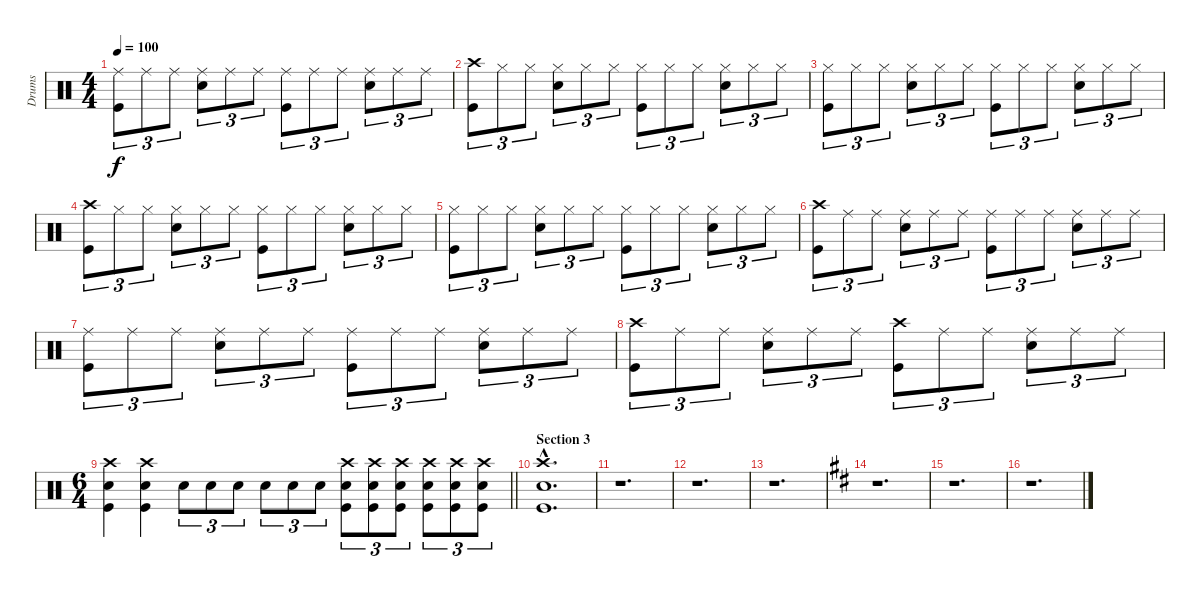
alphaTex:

\track ("Drums" "Drums") {instrument percussion}
\staff {score}
\articulation defaults
\ts (4 4)
\tempo 100
\clef neutral
\ks c
("Ride (middle)" "Kick (hit)").8{tu (3 2) dy f} "Ride (middle)".8{tu (3 2)} "Ride (middle)".8{tu (3 2)} ("Ride (middle)" "Snare (hit) 2").8{tu (3 2)} "Ride (middle)".8{tu (3 2)} "Ride (middle)".8{tu (3 2)} ("Ride (middle)" "Kick (hit)").8{tu (3 2)} "Ride (middle)".8{tu (3 2)} "Ride (middle)".8{tu (3 2)} ("Ride (middle)" "Snare (hit) 2").8{tu (3 2)} "Ride (middle)".8{tu (3 2)} "Ride (middle)".8{tu (3 2)} |
("Crash high (hit)" "Kick (hit)").8{tu (3 2)} "Hi-Hat (closed)".8{tu (3 2)} "Hi-Hat (closed)".8{tu (3 2)} ("Hi-Hat (closed)" "Snare (hit) 2").8{tu (3 2)} "Hi-Hat (closed)".8{tu (3 2)} "Hi-Hat (closed)".8{tu (3 2)} ("Hi-Hat (closed)" "Kick (hit)").8{tu (3 2)} "Hi-Hat (closed)".8{tu (3 2)} "Hi-Hat (closed)".8{tu (3 2)} ("Hi-Hat (closed)" "Snare (hit) 2").8{tu (3 2)} "Hi-Hat (closed)".8{tu (3 2)} "Hi-Hat (closed)".8{tu (3 2)} |
("Hi-Hat (closed)" "Kick (hit)").8{tu (3 2)} "Hi-Hat (closed)".8{tu (3 2)} "Hi-Hat (closed)".8{tu (3 2)} ("Hi-Hat (closed)" "Snare (hit) 2").8{tu (3 2)} "Hi-Hat (closed)".8{tu (3 2)} "Hi-Hat (closed)".8{tu (3 2)} ("Hi-Hat (closed)" "Kick (hit)").8{tu (3 2)} "Hi-Hat (closed)".8{tu (3 2)} "Hi-Hat (closed)".8{tu (3 2)} ("Hi-Hat (closed)" "Snare (hit) 2").8{tu (3 2)} "Hi-Hat (closed)".8{tu (3 2)} "Hi-Hat (closed)".8{tu (3 2)} |
("Crash high (hit)" "Kick (hit)").8{tu (3 2)} "Hi-Hat (closed)".8{tu (3 2)} "Hi-Hat (closed)".8{tu (3 2)} ("Hi-Hat (closed)" "Snare (hit) 2").8{tu (3 2)} "Hi-Hat (closed)".8{tu (3 2)} "Hi-Hat (closed)".8{tu (3 2)} ("Hi-Hat (closed)" "Kick (hit)").8{tu (3 2)} "Hi-Hat (closed)".8{tu (3 2)} "Hi-Hat (closed)".8{tu (3 2)} ("Hi-Hat (closed)" "Snare (hit) 2").8{tu (3 2)} "Hi-Hat (closed)".8{tu (3 2)} "Hi-Hat (closed)".8{tu (3 2)} |
("Hi-Hat (closed)" "Kick (hit)").8{tu (3 2)} "Hi-Hat (closed)".8{tu (3 2)} "Hi-Hat (closed)".8{tu (3 2)} ("Hi-Hat (closed)" "Snare (hit) 2").8{tu (3 2)} "Hi-Hat (closed)".8{tu (3 2)} "Hi-Hat (closed)".8{tu (3 2)} ("Hi-Hat (closed)" "Kick (hit)").8{tu (3 2)} "Hi-Hat (closed)".8{tu (3 2)} "Hi-Hat (closed)".8{tu (3 2)} ("Hi-Hat (closed)" "Snare (hit) 2").8{tu (3 2)} "Hi-Hat (closed)".8{tu (3 2)} "Hi-Hat (closed)".8{tu (3 2)} |
("Crash high (hit)" "Kick (hit)").8{tu (3 2)} "Ride (middle)".8{tu (3 2)} "Ride (middle)".8{tu (3 2)} ("Ride (middle)" "Snare (hit) 2").8{tu (3 2)} "Ride (middle)".8{tu (3 2)} "Ride (middle)".8{tu (3 2)} ("Ride (middle)" "Kick (hit)").8{tu (3 2)} "Ride (middle)".8{tu (3 2)} "Ride (middle)".8{tu (3 2)} ("Ride (middle)" "Snare (hit) 2").8{tu (3 2)} "Ride (middle)".8{tu (3 2)} "Ride (middle)".8{tu (3 2)} |
("Ride (middle)" "Kick (hit)").8{tu (3 2)} "Ride (middle)".8{tu (3 2)} "Ride (middle)".8{tu (3 2)} ("Ride (middle)" "Snare (hit) 2").8{tu (3 2)} "Ride (middle)".8{tu (3 2)} "Ride (middle)".8{tu (3 2)} ("Ride (middle)" "Kick (hit)").8{tu (3 2)} "Ride (middle)".8{tu (3 2)} "Ride (middle)".8{tu (3 2)} ("Ride (middle)" "Snare (hit) 2").8{tu (3 2)} "Ride (middle)".8{tu (3 2)} "Ride (middle)".8{tu (3 2)} |
("Crash high (hit)" "Kick (hit)").8{tu (3 2)} "Ride (middle)".8{tu (3 2)} "Ride (middle)".8{tu (3 2)} ("Ride (middle)" "Snare (hit) 2").8{tu (3 2)} "Ride (middle)".8{tu (3 2)} "Ride (middle)".8{tu (3 2)} ("Crash high (hit)" "Kick (hit)").8{tu (3 2)} "Ride (middle)".8{tu (3 2)} "Ride (middle)".8{tu (3 2)} ("Ride (middle)" "Snare (hit) 2").8{tu (3 2)} "Ride (middle)".8{tu (3 2)} "Ride (middle)".8{tu (3 2)} |
\ts (6 4)
\barLineRight lightlight
("Crash high (hit)" "Snare (hit) 2" "Kick (hit)").4 ("Crash high (hit)" "Snare (hit) 2" "Kick (hit)").4 "Snare (hit) 2".8{tu (3 2)} "Snare (hit) 2".8{tu (3 2)} "Snare (hit) 2".8{tu (3 2)} "Snare (hit) 2".8{tu (3 2)} "Snare (hit) 2".8{tu (3 2)} "Snare (hit) 2".8{tu (3 2)} ("Crash high (hit)" "Snare (hit) 2" "Kick (hit)").8{tu (3 2)} ("Crash high (hit)" "Snare (hit) 2" "Kick (hit)").8{tu (3 2)} ("Crash high (hit)" "Snare (hit) 2" "Kick (hit)").8{tu (3 2)} ("Crash high (hit)" "Snare (hit) 2" "Kick (hit)").8{tu (3 2)} ("Crash high (hit)" "Snare (hit) 2" "Kick (hit)").8{tu (3 2)} ("Crash high (hit)" "Snare (hit) 2" "Kick (hit)").8{tu (3 2)} |
\section ("" "Section 3")
("Crash high (hit)"{hac} "Snare (hit) 2"{hac} "Kick (hit)"{hac}).1{d} |
r.1{d} |
r.1{d} |
r.1{d} |
\ks d
r.1{d} |
r.1{d} |
r.1{d}
